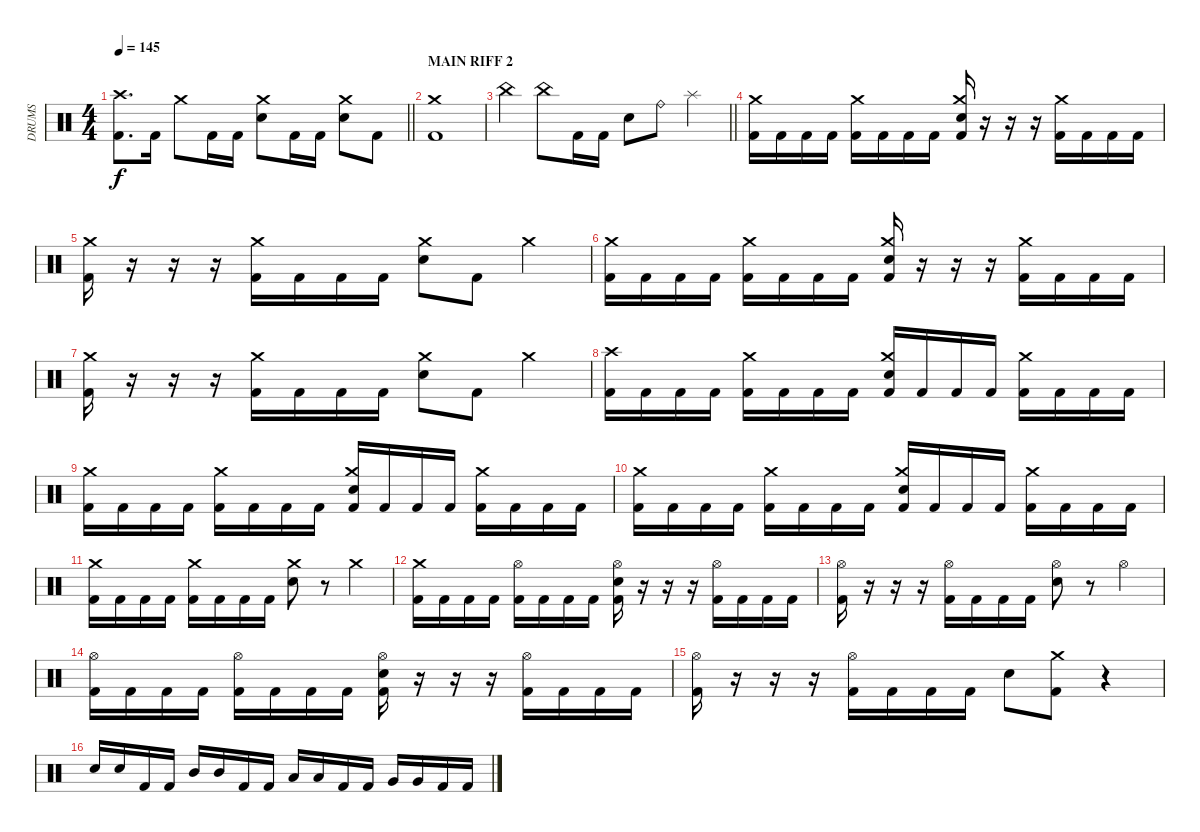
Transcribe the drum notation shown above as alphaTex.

\track ("DRUMS" "DRUMS") {instrument percussion}
\staff {score}
\articulation defaults
\ts (4 4)
\tempo 145
\clef neutral
\barLineRight lightlight
\ks c
("Crash high (hit)" "Kick (hit) 2").8{d dy f} "Kick (hit) 2".16 "Crash medium (hit)".8 "Kick (hit) 2".16 "Kick (hit) 2".16 ("Crash medium (hit)" "Electric Snare (hit)").8 "Kick (hit) 2".16 "Kick (hit) 2".16 ("Crash medium (hit)" "Electric Snare (hit)").8 "Kick (hit) 2".8 |
\section ("" "MAIN RIFF 2")
("Crash medium (hit)" "Kick (hit) 2").1 |
\barLineRight lightlight "China (hit)".4 "China (hit)".8 "Kick (hit) 2".16 "Kick (hit) 2".16 "Electric Snare (hit)".8 "Ride (bell)".8 "Splash (hit)".4
|
\section ("" "")
("Crash medium (hit)" "Kick (hit) 2").16 "Kick (hit) 2".16 "Kick (hit) 2".16 "Kick (hit) 2".16 ("Crash medium (hit)" "Kick (hit) 2").16 "Kick (hit) 2".16 "Kick (hit) 2".16 "Kick (hit) 2".16 ("Crash medium (hit)" "Electric Snare (hit)" "Kick (hit) 2").16 r.16 r.16 r.16 ("Crash medium (hit)" "Kick (hit) 2").16 "Kick (hit) 2".16 "Kick (hit) 2".16 "Kick (hit) 2".16 |
("Crash medium (hit)" "Kick (hit) 2").16 r.16 r.16 r.16 ("Crash medium (hit)" "Kick (hit) 2").16 "Kick (hit) 2".16 "Kick (hit) 2".16 "Kick (hit) 2".16 ("Crash medium (hit)" "Electric Snare (hit)").8 "Kick (hit) 2".8 "Crash medium (hit)".4 |
("Crash medium (hit)" "Kick (hit) 2").16 "Kick (hit) 2".16 "Kick (hit) 2".16 "Kick (hit) 2".16 ("Crash medium (hit)" "Kick (hit) 2").16 "Kick (hit) 2".16 "Kick (hit) 2".16 "Kick (hit) 2".16 ("Crash medium (hit)" "Electric Snare (hit)" "Kick (hit) 2").16 r.16 r.16 r.16 ("Crash medium (hit)" "Kick (hit) 2").16 "Kick (hit) 2".16 "Kick (hit) 2".16 "Kick (hit) 2".16 |
("Crash medium (hit)" "Kick (hit) 2").16 r.16 r.16 r.16 ("Crash medium (hit)" "Kick (hit) 2").16 "Kick (hit) 2".16 "Kick (hit) 2".16 "Kick (hit) 2".16 ("Crash medium (hit)" "Electric Snare (hit)").8 "Kick (hit) 2".8 "Crash medium (hit)".4 |
("Crash high (hit)" "Kick (hit) 2").16 "Kick (hit) 2".16 "Kick (hit) 2".16 "Kick (hit) 2".16 ("Crash medium (hit)" "Kick (hit) 2").16 "Kick (hit) 2".16 "Kick (hit) 2".16 "Kick (hit) 2".16 ("Crash medium (hit)" "Electric Snare (hit)" "Kick (hit) 2").16 "Kick (hit) 2".16 "Kick (hit) 2".16 "Kick (hit) 2".16 ("Crash medium (hit)" "Kick (hit) 2").16 "Kick (hit) 2".16 "Kick (hit) 2".16 "Kick (hit) 2".16 |
("Crash medium (hit)" "Kick (hit) 2").16 "Kick (hit) 2".16 "Kick (hit) 2".16 "Kick (hit) 2".16 ("Crash medium (hit)" "Kick (hit) 2").16 "Kick (hit) 2".16 "Kick (hit) 2".16 "Kick (hit) 2".16 ("Crash medium (hit)" "Electric Snare (hit)" "Kick (hit) 2").16 "Kick (hit) 2".16 "Kick (hit) 2".16 "Kick (hit) 2".16 ("Crash medium (hit)" "Kick (hit) 2").16 "Kick (hit) 2".16 "Kick (hit) 2".16 "Kick (hit) 2".16 |
("Crash medium (hit)" "Kick (hit) 2").16 "Kick (hit) 2".16 "Kick (hit) 2".16 "Kick (hit) 2".16 ("Crash medium (hit)" "Kick (hit) 2").16 "Kick (hit) 2".16 "Kick (hit) 2".16 "Kick (hit) 2".16 ("Crash medium (hit)" "Electric Snare (hit)" "Kick (hit) 2").16 "Kick (hit) 2".16 "Kick (hit) 2".16 "Kick (hit) 2".16 ("Crash medium (hit)" "Kick (hit) 2").16 "Kick (hit) 2".16 "Kick (hit) 2".16 "Kick (hit) 2".16 |
("Crash medium (hit)" "Kick (hit) 2").16 "Kick (hit) 2".16 "Kick (hit) 2".16 "Kick (hit) 2".16 ("Crash medium (hit)" "Kick (hit) 2").16 "Kick (hit) 2".16 "Kick (hit) 2".16 "Kick (hit) 2".16 ("Crash medium (hit)" "Electric Snare (hit)").8 r.8 "Crash medium (hit)".4 |
("Crash medium (hit)" "Kick (hit) 2").16 "Kick (hit) 2".16 "Kick (hit) 2".16 "Kick (hit) 2".16 ("Hi-Hat (open)" "Kick (hit) 2").16 "Kick (hit) 2".16 "Kick (hit) 2".16 "Kick (hit) 2".16 ("Hi-Hat (open)" "Electric Snare (hit)" "Kick (hit) 2").16 r.16 r.16 r.16 ("Hi-Hat (open)" "Kick (hit) 2").16 "Kick (hit) 2".16 "Kick (hit) 2".16 "Kick (hit) 2".16 |
("Hi-Hat (open)" "Kick (hit) 2").16 r.16 r.16 r.16 ("Hi-Hat (open)" "Kick (hit) 2").16 "Kick (hit) 2".16 "Kick (hit) 2".16 "Kick (hit) 2".16 ("Hi-Hat (open)" "Electric Snare (hit)").8 r.8 "Hi-Hat (open)".4 |
("Hi-Hat (open)" "Kick (hit) 2").16 "Kick (hit) 2".16 "Kick (hit) 2".16 "Kick (hit) 2".16 ("Hi-Hat (open)" "Kick (hit) 2").16 "Kick (hit) 2".16 "Kick (hit) 2".16 "Kick (hit) 2".16 ("Hi-Hat (open)" "Electric Snare (hit)" "Kick (hit) 2").16 r.16 r.16 r.16 ("Hi-Hat (open)" "Kick (hit) 2").16 "Kick (hit) 2".16 "Kick (hit) 2".16 "Kick (hit) 2".16 |
("Hi-Hat (open)" "Kick (hit) 2").16 r.16 r.16 r.16 ("Hi-Hat (open)" "Kick (hit) 2").16 "Kick (hit) 2".16 "Kick (hit) 2".16 "Kick (hit) 2".16 "Electric Snare (hit)".8 ("Crash medium (hit)" "Kick (hit) 2").8 r.4 |
"Electric Snare (hit)".16 "Electric Snare (hit)".16 "Kick (hit) 2".16 "Kick (hit) 2".16 "Mid Tom (hit)".16 "Mid Tom (hit)".16 "Kick (hit) 2".16 "Kick (hit) 2".16 "Low Tom (hit)".16 "Low Tom (hit)".16 "Kick (hit) 2".16 "Kick (hit) 2".16 "Very Low Tom (hit)".16 "Very Low Tom (hit)".16 "Kick (hit) 2".16 "Kick (hit) 2".16
